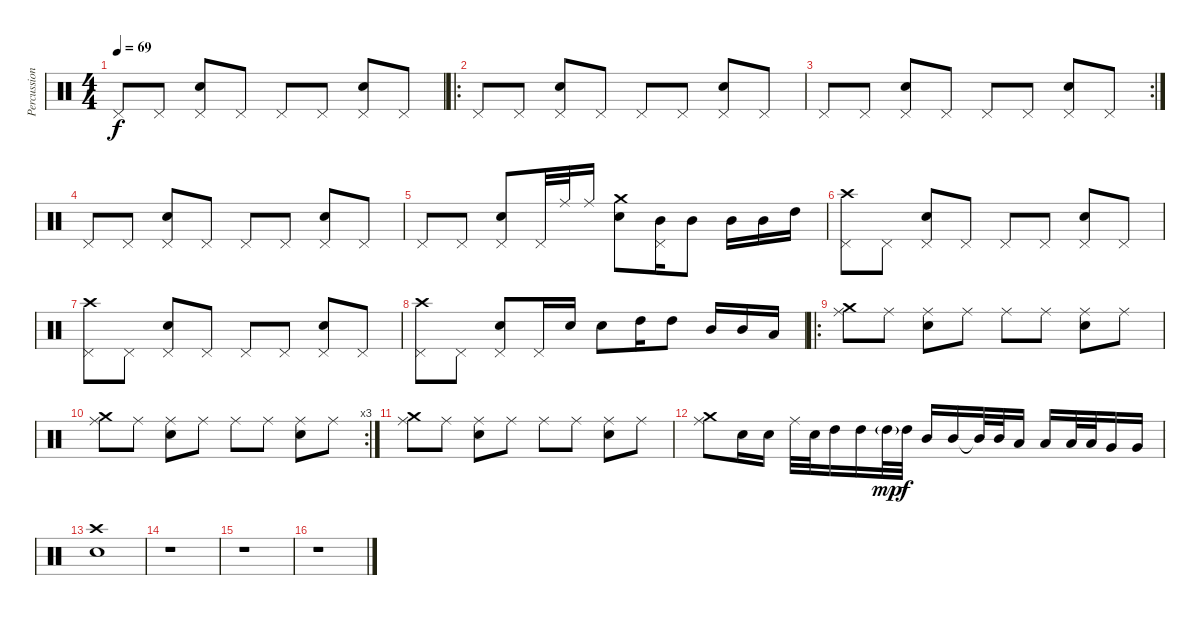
\track ("Percussion" "Percussion") {instrument percussion}
\staff {score}
\articulation defaults
\ts (4 4)
\tempo 69
\clef neutral
\ks c "Pedal Hi-Hat (hit)".8{dy f} "Pedal Hi-Hat (hit)".8
("Pedal Hi-Hat (hit)" "Electric Snare (hit)").8 "Pedal Hi-Hat (hit)".8 "Pedal Hi-Hat (hit)".8 "Pedal Hi-Hat (hit)".8 ("Pedal Hi-Hat (hit)" "Electric Snare (hit)").8 "Pedal Hi-Hat (hit)".8 |
\ro "Pedal Hi-Hat (hit)".8 "Pedal Hi-Hat (hit)".8
("Pedal Hi-Hat (hit)" "Electric Snare (hit)").8 "Pedal Hi-Hat (hit)".8 "Pedal Hi-Hat (hit)".8 "Pedal Hi-Hat (hit)".8 ("Pedal Hi-Hat (hit)" "Electric Snare (hit)").8 "Pedal Hi-Hat (hit)".8 |
\rc 2 "Pedal Hi-Hat (hit)".8 "Pedal Hi-Hat (hit)".8
("Pedal Hi-Hat (hit)" "Electric Snare (hit)").8 "Pedal Hi-Hat (hit)".8 "Pedal Hi-Hat (hit)".8 "Pedal Hi-Hat (hit)".8 ("Pedal Hi-Hat (hit)" "Electric Snare (hit)").8 "Pedal Hi-Hat (hit)".8 |
"Pedal Hi-Hat (hit)".8 "Pedal Hi-Hat (hit)".8 ("Pedal Hi-Hat (hit)" "Electric Snare (hit)").8 "Pedal Hi-Hat (hit)".8 "Pedal Hi-Hat (hit)".8 "Pedal Hi-Hat (hit)".8 ("Pedal Hi-Hat (hit)" "Electric Snare (hit)").8 "Pedal Hi-Hat (hit)".8 |
"Pedal Hi-Hat (hit)".8 "Pedal Hi-Hat (hit)".8 ("Pedal Hi-Hat (hit)" "Electric Snare (hit)").8 "Pedal Hi-Hat (hit)".32 "Ride (middle)".32 "Ride (middle)".16 ("Crash medium (hit)" "Electric Snare (hit)").8 ("Pedal Hi-Hat (hit)" "Mid Tom (hit)").16 "Mid Tom (hit)".8 "Mid Tom (hit)".16 "Mid Tom (hit)".16 "High Tom (hit)".16 |
("Pedal Hi-Hat (hit)" "Crash high (hit)").8 "Pedal Hi-Hat (hit)".8 ("Pedal Hi-Hat (hit)" "Electric Snare (hit)").8 "Pedal Hi-Hat (hit)".8 "Pedal Hi-Hat (hit)".8 "Pedal Hi-Hat (hit)".8 ("Pedal Hi-Hat (hit)" "Electric Snare (hit)").8 "Pedal Hi-Hat (hit)".8 |
("Pedal Hi-Hat (hit)" "Crash high (hit)").8 "Pedal Hi-Hat (hit)".8 ("Pedal Hi-Hat (hit)" "Electric Snare (hit)").8 "Pedal Hi-Hat (hit)".8 "Pedal Hi-Hat (hit)".8 "Pedal Hi-Hat (hit)".8 ("Pedal Hi-Hat (hit)" "Electric Snare (hit)").8 "Pedal Hi-Hat (hit)".8 |
("Pedal Hi-Hat (hit)" "Crash high (hit)").8 "Pedal Hi-Hat (hit)".8 ("Pedal Hi-Hat (hit)" "Electric Snare (hit)").8 "Pedal Hi-Hat (hit)".16 "Electric Snare (hit)".16 "Electric Snare (hit)".8 "High Tom (hit)".16 "High Tom (hit)".8 "Mid Tom (hit)".16 "Mid Tom (hit)".16 "Low Tom (hit)".16 |
\ro
("Ride (middle)" "Crash medium (hit)").8 "Ride (middle)".8 ("Ride (middle)" "Electric Snare (hit)").8 "Ride (middle)".8 "Ride (middle)".8 "Ride (middle)".8 ("Ride (middle)" "Electric Snare (hit)").8 "Ride (middle)".8 |
\rc 3
("Ride (middle)" "Crash medium (hit)").8 "Ride (middle)".8 ("Ride (middle)" "Electric Snare (hit)").8 "Ride (middle)".8 "Ride (middle)".8 "Ride (middle)".8 ("Ride (middle)" "Electric Snare (hit)").8 "Ride (middle)".8 |
("Ride (middle)" "Crash medium (hit)").8 "Ride (middle)".8 ("Ride (middle)" "Electric Snare (hit)").8 "Ride (middle)".8 "Ride (middle)".8 "Ride (middle)".8 ("Ride (middle)" "Electric Snare (hit)").8 "Ride (middle)".8 |
("Ride (middle)" "Crash medium (hit)").8 "Snare (hit) 2".16 "Snare (hit) 2".16 "Ride (middle)".32 "Snare (hit) 2".32 "High Tom (hit)".16 "High Tom (hit)".16 "High Tom (hit)"{g}.32{dy mp} "High Tom (hit)".32{dy f} "Mid Tom (hit)".16 "Mid Tom (hit)".16 "Mid Tom (hit)"{t}.32 "Mid Tom (hit)".32 "Low Tom (hit)".16 "Low Tom (hit)".16 "Low Tom (hit)".32 "Low Tom (hit)".32 "Very Low Tom (hit)".16 "Very Low Tom (hit)".16 |
("Crash high (hit)" "Snare (hit) 2").1 |
r.1 |
r.1 |
r.1
